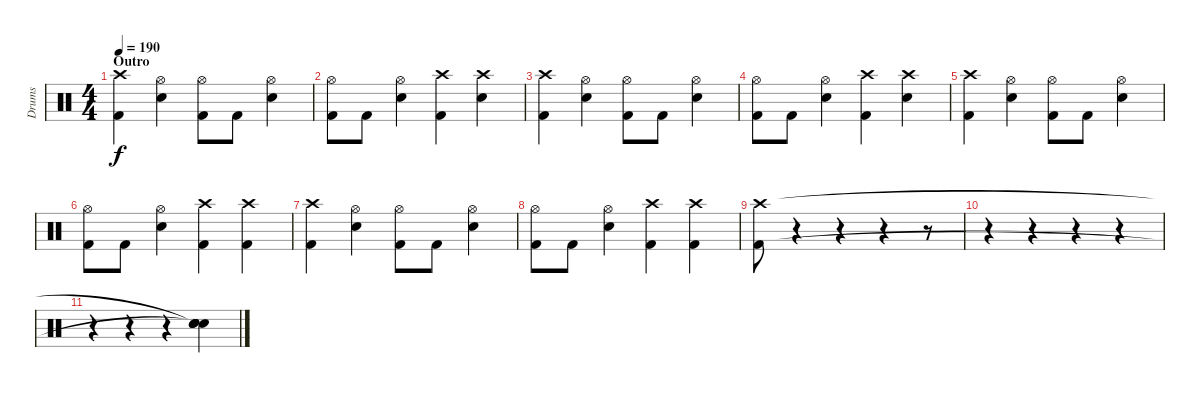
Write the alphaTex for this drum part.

\track ("Drums" "Drums") {instrument percussion}
\staff {score}
\articulation defaults
\ts (4 4)
\section ("" "Outro")
\tempo 190
\clef neutral
\ks c
("Crash high (hit)" "Kick (hit) 2").4{dy f} ("Hi-Hat (open)" "Snare (hit) 2").4 ("Hi-Hat (open)" "Kick (hit) 2").8 "Kick (hit) 2".8 ("Hi-Hat (open)" "Snare (hit) 2").4 |
("Hi-Hat (open)" "Kick (hit) 2").8 "Kick (hit) 2".8 ("Hi-Hat (open)" "Snare (hit) 2").4 ("Crash high (hit)" "Kick (hit) 2").4 ("Crash high (hit)" "Snare (hit) 2").4 |
("Crash high (hit)" "Kick (hit) 2").4 ("Hi-Hat (open)" "Snare (hit) 2").4 ("Hi-Hat (open)" "Kick (hit) 2").8 "Kick (hit) 2".8 ("Hi-Hat (open)" "Snare (hit) 2").4 |
("Hi-Hat (open)" "Kick (hit) 2").8 "Kick (hit) 2".8 ("Hi-Hat (open)" "Snare (hit) 2").4 ("Crash high (hit)" "Kick (hit) 2").4 ("Crash high (hit)" "Snare (hit) 2").4 |
("Crash high (hit)" "Kick (hit) 2").4 ("Hi-Hat (open)" "Snare (hit) 2").4 ("Hi-Hat (open)" "Kick (hit) 2").8 "Kick (hit) 2".8 ("Hi-Hat (open)" "Snare (hit) 2").4 |
("Hi-Hat (open)" "Kick (hit) 2").8 "Kick (hit) 2".8 ("Hi-Hat (open)" "Snare (hit) 2").4 ("Crash high (hit)" "Kick (hit) 2").4 ("Crash high (hit)" "Kick (hit) 2").4 |
("Crash high (hit)" "Kick (hit) 2").4 ("Hi-Hat (open)" "Snare (hit) 2").4 ("Hi-Hat (open)" "Kick (hit) 2").8 "Kick (hit) 2".8 ("Hi-Hat (open)" "Snare (hit) 2").4 |
("Hi-Hat (open)" "Kick (hit) 2").8 "Kick (hit) 2".8 ("Hi-Hat (open)" "Snare (hit) 2").4 ("Crash high (hit)" "Kick (hit) 2").4 ("Crash high (hit)" "Kick (hit) 2").4 |
("Crash high (hit)" "Kick (hit) 2").8{volume 0} r.4 r.4 r.4 r.8 |
r.4 r.4 r.4 r.4 |
r.4 r.4 r.4 ("Snare (hit)"{t} "Snare (hit)"{t} "Snare (hit)" "Snare (hit)").4
